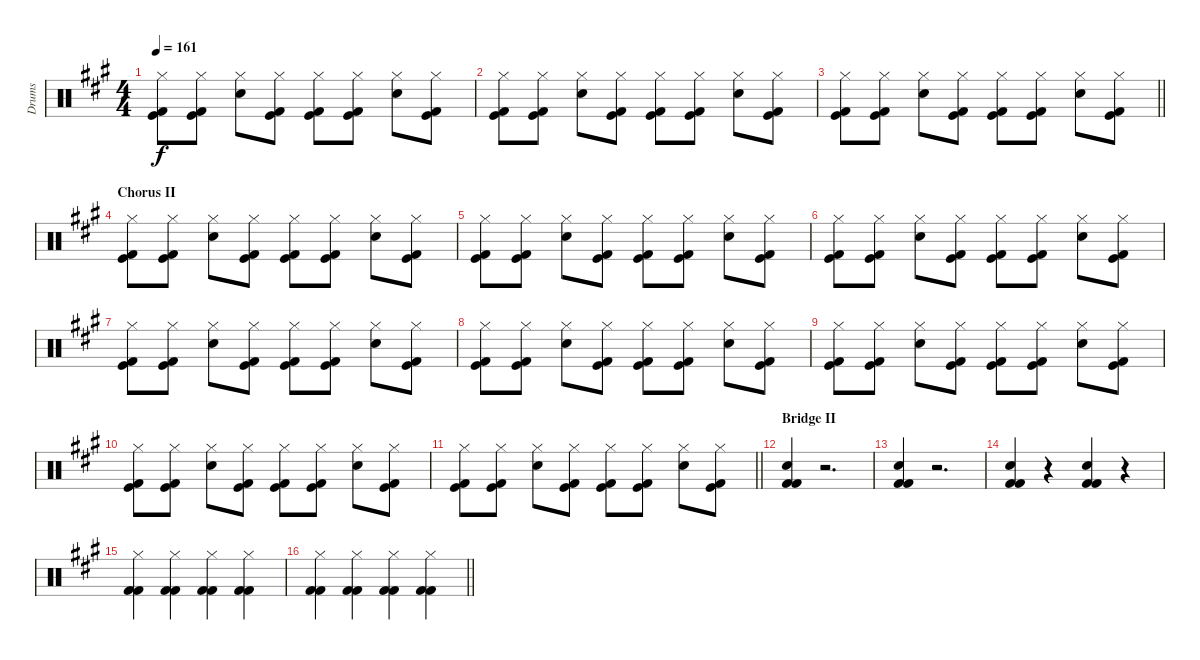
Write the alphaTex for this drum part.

\track ("Drums" "Drums") {instrument percussion}
\staff {score}
\articulation defaults
\ts (4 4)
\tempo 161
\clef neutral
\ks a
("Hi-Hat (closed)" "Kick (hit)" "Kick (hit) 2").8{dy f} ("Hi-Hat (closed)" "Kick (hit)" "Kick (hit) 2").8 ("Hi-Hat (closed)" "Snare (hit) 2").8 ("Hi-Hat (closed)" "Kick (hit)" "Kick (hit) 2").8 ("Hi-Hat (closed)" "Kick (hit)" "Kick (hit) 2").8 ("Hi-Hat (closed)" "Kick (hit)" "Kick (hit) 2").8 ("Hi-Hat (closed)" "Snare (hit) 2").8 ("Hi-Hat (closed)" "Kick (hit)" "Kick (hit) 2").8 |
("Hi-Hat (closed)" "Kick (hit)" "Kick (hit) 2").8 ("Hi-Hat (closed)" "Kick (hit)" "Kick (hit) 2").8 ("Hi-Hat (closed)" "Snare (hit) 2").8 ("Hi-Hat (closed)" "Kick (hit)" "Kick (hit) 2").8 ("Hi-Hat (closed)" "Kick (hit)" "Kick (hit) 2").8 ("Hi-Hat (closed)" "Kick (hit)" "Kick (hit) 2").8 ("Hi-Hat (closed)" "Snare (hit) 2").8 ("Hi-Hat (closed)" "Kick (hit)" "Kick (hit) 2").8 |
\barLineRight lightlight
("Hi-Hat (closed)" "Kick (hit)" "Kick (hit) 2").8 ("Hi-Hat (closed)" "Kick (hit)" "Kick (hit) 2").8 ("Hi-Hat (closed)" "Snare (hit) 2").8 ("Hi-Hat (closed)" "Kick (hit)" "Kick (hit) 2").8 ("Hi-Hat (closed)" "Kick (hit)" "Kick (hit) 2").8 ("Hi-Hat (closed)" "Kick (hit)" "Kick (hit) 2").8 ("Hi-Hat (closed)" "Snare (hit) 2").8 ("Hi-Hat (closed)" "Kick (hit)" "Kick (hit) 2").8 |
\section ("" "Chorus II")
("Hi-Hat (closed)" "Kick (hit)" "Kick (hit) 2").8 ("Hi-Hat (closed)" "Kick (hit)" "Kick (hit) 2").8 ("Hi-Hat (closed)" "Snare (hit) 2").8 ("Hi-Hat (closed)" "Kick (hit)" "Kick (hit) 2").8 ("Hi-Hat (closed)" "Kick (hit)" "Kick (hit) 2").8 ("Hi-Hat (closed)" "Kick (hit)" "Kick (hit) 2").8 ("Hi-Hat (closed)" "Snare (hit) 2").8 ("Hi-Hat (closed)" "Kick (hit)" "Kick (hit) 2").8 |
("Hi-Hat (closed)" "Kick (hit)" "Kick (hit) 2").8 ("Hi-Hat (closed)" "Kick (hit)" "Kick (hit) 2").8 ("Hi-Hat (closed)" "Snare (hit) 2").8 ("Hi-Hat (closed)" "Kick (hit)" "Kick (hit) 2").8 ("Hi-Hat (closed)" "Kick (hit)" "Kick (hit) 2").8 ("Hi-Hat (closed)" "Kick (hit)" "Kick (hit) 2").8 ("Hi-Hat (closed)" "Snare (hit) 2").8 ("Hi-Hat (closed)" "Kick (hit)" "Kick (hit) 2").8 |
("Hi-Hat (closed)" "Kick (hit)" "Kick (hit) 2").8 ("Hi-Hat (closed)" "Kick (hit)" "Kick (hit) 2").8 ("Hi-Hat (closed)" "Snare (hit) 2").8 ("Hi-Hat (closed)" "Kick (hit)" "Kick (hit) 2").8 ("Hi-Hat (closed)" "Kick (hit)" "Kick (hit) 2").8 ("Hi-Hat (closed)" "Kick (hit)" "Kick (hit) 2").8 ("Hi-Hat (closed)" "Snare (hit) 2").8 ("Hi-Hat (closed)" "Kick (hit)" "Kick (hit) 2").8 |
("Hi-Hat (closed)" "Kick (hit)" "Kick (hit) 2").8 ("Hi-Hat (closed)" "Kick (hit)" "Kick (hit) 2").8 ("Hi-Hat (closed)" "Snare (hit) 2").8 ("Hi-Hat (closed)" "Kick (hit)" "Kick (hit) 2").8 ("Hi-Hat (closed)" "Kick (hit)" "Kick (hit) 2").8 ("Hi-Hat (closed)" "Kick (hit)" "Kick (hit) 2").8 ("Hi-Hat (closed)" "Snare (hit) 2").8 ("Hi-Hat (closed)" "Kick (hit)" "Kick (hit) 2").8 |
("Hi-Hat (closed)" "Kick (hit)" "Kick (hit) 2").8 ("Hi-Hat (closed)" "Kick (hit)" "Kick (hit) 2").8 ("Hi-Hat (closed)" "Snare (hit) 2").8 ("Hi-Hat (closed)" "Kick (hit)" "Kick (hit) 2").8 ("Hi-Hat (closed)" "Kick (hit)" "Kick (hit) 2").8 ("Hi-Hat (closed)" "Kick (hit)" "Kick (hit) 2").8 ("Hi-Hat (closed)" "Snare (hit) 2").8 ("Hi-Hat (closed)" "Kick (hit)" "Kick (hit) 2").8 |
("Hi-Hat (closed)" "Kick (hit)" "Kick (hit) 2").8 ("Hi-Hat (closed)" "Kick (hit)" "Kick (hit) 2").8 ("Hi-Hat (closed)" "Snare (hit) 2").8 ("Hi-Hat (closed)" "Kick (hit)" "Kick (hit) 2").8 ("Hi-Hat (closed)" "Kick (hit)" "Kick (hit) 2").8 ("Hi-Hat (closed)" "Kick (hit)" "Kick (hit) 2").8 ("Hi-Hat (closed)" "Snare (hit) 2").8 ("Hi-Hat (closed)" "Kick (hit)" "Kick (hit) 2").8 |
("Hi-Hat (closed)" "Kick (hit)" "Kick (hit) 2").8 ("Hi-Hat (closed)" "Kick (hit)" "Kick (hit) 2").8 ("Hi-Hat (closed)" "Snare (hit) 2").8 ("Hi-Hat (closed)" "Kick (hit)" "Kick (hit) 2").8 ("Hi-Hat (closed)" "Kick (hit)" "Kick (hit) 2").8 ("Hi-Hat (closed)" "Kick (hit)" "Kick (hit) 2").8 ("Hi-Hat (closed)" "Snare (hit) 2").8 ("Hi-Hat (closed)" "Kick (hit)" "Kick (hit) 2").8 |
\barLineRight lightlight
("Hi-Hat (closed)" "Kick (hit)" "Kick (hit) 2").8 ("Hi-Hat (closed)" "Kick (hit)" "Kick (hit) 2").8 ("Hi-Hat (closed)" "Snare (hit) 2").8 ("Hi-Hat (closed)" "Kick (hit)" "Kick (hit) 2").8 ("Hi-Hat (closed)" "Kick (hit)" "Kick (hit) 2").8 ("Hi-Hat (closed)" "Kick (hit)" "Kick (hit) 2").8 ("Hi-Hat (closed)" "Snare (hit) 2").8 ("Hi-Hat (closed)" "Kick (hit)" "Kick (hit) 2").8 |
\section ("" "Bridge II")
("Snare (hit) 2" "Kick (hit) 2" "Kick (hit) 2").4 r.2{d} |
("Snare (hit) 2" "Kick (hit) 2" "Kick (hit) 2").4 r.2{d} |
("Snare (hit) 2" "Kick (hit) 2" "Kick (hit) 2").4 r.4 ("Snare (hit) 2" "Kick (hit) 2" "Kick (hit) 2").4 r.4 |
("Hi-Hat (closed)" "Kick (hit) 2" "Kick (hit) 2").4 ("Hi-Hat (closed)" "Kick (hit) 2" "Kick (hit) 2").4 ("Hi-Hat (closed)" "Kick (hit) 2" "Kick (hit) 2").4 ("Hi-Hat (closed)" "Kick (hit) 2" "Kick (hit) 2").4 |
\barLineRight lightlight
("Hi-Hat (closed)" "Kick (hit) 2" "Kick (hit) 2").4 ("Hi-Hat (closed)" "Kick (hit) 2" "Kick (hit) 2").4 ("Hi-Hat (closed)" "Kick (hit) 2" "Kick (hit) 2").4 ("Hi-Hat (closed)" "Kick (hit) 2" "Kick (hit) 2").4
